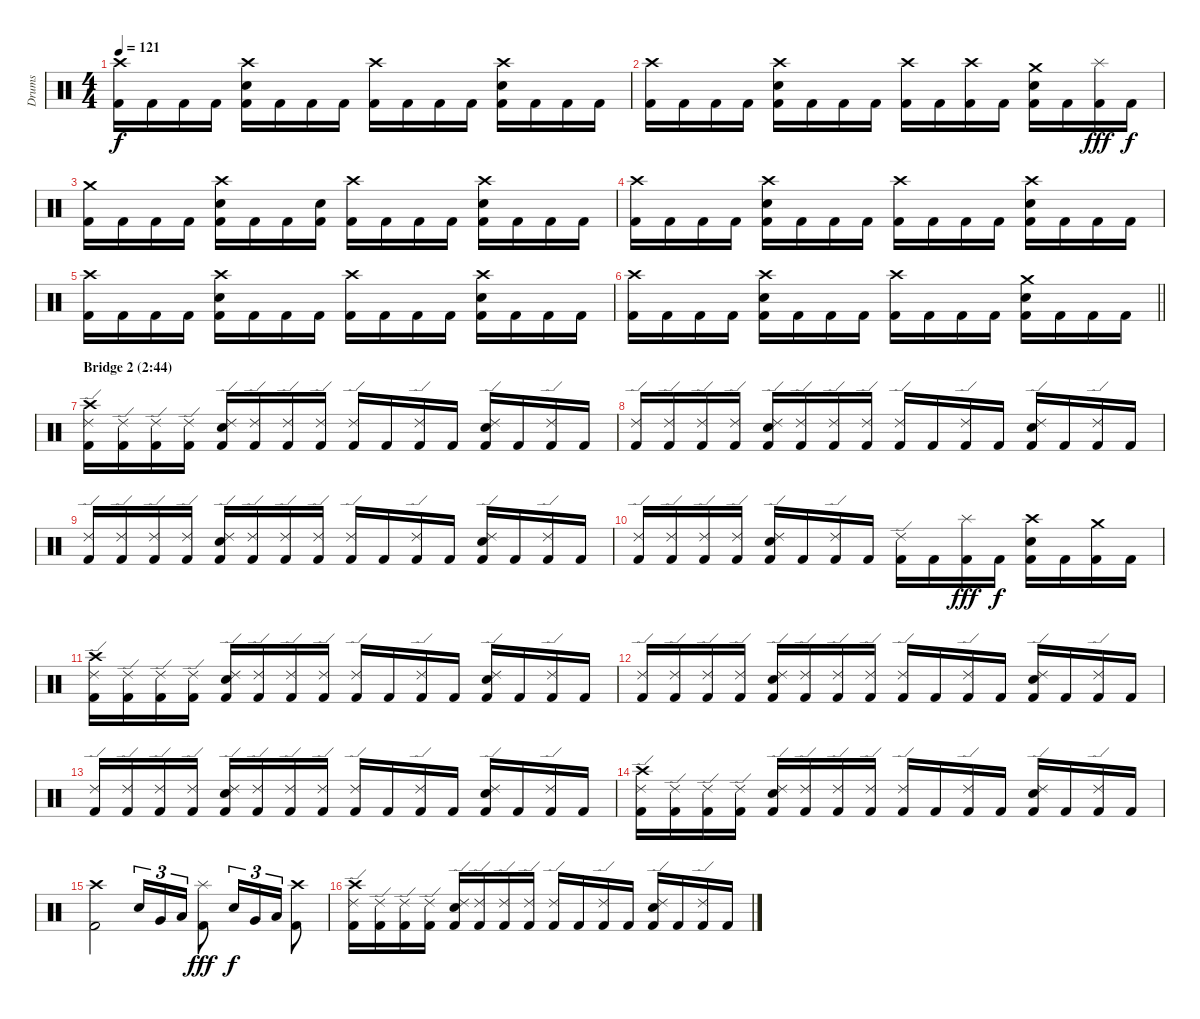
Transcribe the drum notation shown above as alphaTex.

\track ("Drums" "Drums") {instrument percussion}
\staff {score}
\articulation defaults
\ts (4 4)
\tempo 121
\clef neutral
\ks c
("Crash high (hit)" "Kick (hit) 2").16{dy f} "Kick (hit) 2".16 "Kick (hit) 2".16 "Kick (hit) 2".16 ("Crash high (hit)" "Electric Snare (hit)" "Kick (hit) 2").16 "Kick (hit) 2".16 "Kick (hit) 2".16 "Kick (hit) 2".16 ("Crash high (hit)" "Kick (hit) 2").16 "Kick (hit) 2".16 "Kick (hit) 2".16 "Kick (hit) 2".16 ("Crash high (hit)" "Electric Snare (hit)" "Kick (hit) 2").16 "Kick (hit) 2".16 "Kick (hit) 2".16 "Kick (hit) 2".16 |
("Crash high (hit)" "Kick (hit) 2").16 "Kick (hit) 2".16 "Kick (hit) 2".16 "Kick (hit) 2".16 ("Crash high (hit)" "Electric Snare (hit)" "Kick (hit) 2").16 "Kick (hit) 2".16 "Kick (hit) 2".16 "Kick (hit) 2".16 ("Crash high (hit)" "Kick (hit) 2").16 "Kick (hit) 2".16 ("Crash high (hit)" "Kick (hit) 2").16 "Kick (hit) 2".16 ("Crash medium (hit)" "Electric Snare (hit)" "Kick (hit) 2").16 "Kick (hit) 2".16 ("Splash (hit)" "Kick (hit) 2").16{dy fff} "Kick (hit) 2".16{dy f} |
("Crash medium (hit)" "Kick (hit) 2").16 "Kick (hit) 2".16 "Kick (hit) 2".16 "Kick (hit) 2".16 ("Crash high (hit)" "Electric Snare (hit)" "Kick (hit) 2").16 "Kick (hit) 2".16 "Kick (hit) 2".16 ("Electric Snare (hit)" "Kick (hit) 2").16 ("Crash high (hit)" "Kick (hit) 2").16 "Kick (hit) 2".16 "Kick (hit) 2".16 "Kick (hit) 2".16 ("Crash high (hit)" "Electric Snare (hit)" "Kick (hit) 2").16 "Kick (hit) 2".16 "Kick (hit) 2".16 "Kick (hit) 2".16 |
("Crash high (hit)" "Kick (hit) 2").16 "Kick (hit) 2".16 "Kick (hit) 2".16 "Kick (hit) 2".16 ("Crash high (hit)" "Electric Snare (hit)" "Kick (hit) 2").16 "Kick (hit) 2".16 "Kick (hit) 2".16 "Kick (hit) 2".16 ("Crash high (hit)" "Kick (hit) 2").16 "Kick (hit) 2".16 "Kick (hit) 2".16 "Kick (hit) 2".16 ("Crash high (hit)" "Electric Snare (hit)" "Kick (hit) 2").16 "Kick (hit) 2".16 "Kick (hit) 2".16 "Kick (hit) 2".16 |
("Crash high (hit)" "Kick (hit) 2").16 "Kick (hit) 2".16 "Kick (hit) 2".16 "Kick (hit) 2".16 ("Crash high (hit)" "Electric Snare (hit)" "Kick (hit) 2").16 "Kick (hit) 2".16 "Kick (hit) 2".16 "Kick (hit) 2".16 ("Crash high (hit)" "Kick (hit) 2").16 "Kick (hit) 2".16 "Kick (hit) 2".16 "Kick (hit) 2".16 ("Crash high (hit)" "Electric Snare (hit)" "Kick (hit) 2").16 "Kick (hit) 2".16 "Kick (hit) 2".16 "Kick (hit) 2".16 |
\barLineRight lightlight
("Crash high (hit)" "Kick (hit) 2").16 "Kick (hit) 2".16 "Kick (hit) 2".16 "Kick (hit) 2".16 ("Crash high (hit)" "Electric Snare (hit)" "Kick (hit) 2").16 "Kick (hit) 2".16 "Kick (hit) 2".16 "Kick (hit) 2".16 ("Crash high (hit)" "Kick (hit) 2").16 "Kick (hit) 2".16 "Kick (hit) 2".16 "Kick (hit) 2".16 ("Crash medium (hit)" "Electric Snare (hit)" "Kick (hit) 2").16 "Kick (hit) 2".16 "Kick (hit) 2".16 "Kick (hit) 2".16 |
\section ("" "Bridge 2 (2:44)")
("Crash high (hit)" "Ride (edge) 2" "Kick (hit) 2").16 ("Ride (edge) 2" "Kick (hit) 2").16 ("Ride (edge) 2" "Kick (hit) 2").16 ("Ride (edge) 2" "Kick (hit) 2").16 ("Ride (edge) 2" "Electric Snare (hit)" "Kick (hit) 2").16 ("Ride (edge) 2" "Kick (hit) 2").16 ("Ride (edge) 2" "Kick (hit) 2").16 ("Ride (edge) 2" "Kick (hit) 2").16 ("Ride (edge) 2" "Kick (hit) 2").16 "Kick (hit) 2".16 ("Ride (edge) 2" "Kick (hit) 2").16 "Kick (hit) 2".16 ("Ride (edge) 2" "Electric Snare (hit)" "Kick (hit) 2").16 "Kick (hit) 2".16 ("Ride (edge) 2" "Kick (hit) 2").16 "Kick (hit) 2".16 |
("Ride (edge) 2" "Kick (hit) 2").16 ("Ride (edge) 2" "Kick (hit) 2").16 ("Ride (edge) 2" "Kick (hit) 2").16 ("Ride (edge) 2" "Kick (hit) 2").16 ("Ride (edge) 2" "Electric Snare (hit)" "Kick (hit) 2").16 ("Ride (edge) 2" "Kick (hit) 2").16 ("Ride (edge) 2" "Kick (hit) 2").16 ("Ride (edge) 2" "Kick (hit) 2").16 ("Ride (edge) 2" "Kick (hit) 2").16 "Kick (hit) 2".16 ("Ride (edge) 2" "Kick (hit) 2").16 "Kick (hit) 2".16 ("Ride (edge) 2" "Electric Snare (hit)" "Kick (hit) 2").16 "Kick (hit) 2".16 ("Ride (edge) 2" "Kick (hit) 2").16 "Kick (hit) 2".16 |
("Ride (edge) 2" "Kick (hit) 2").16 ("Ride (edge) 2" "Kick (hit) 2").16 ("Ride (edge) 2" "Kick (hit) 2").16 ("Ride (edge) 2" "Kick (hit) 2").16 ("Ride (edge) 2" "Electric Snare (hit)" "Kick (hit) 2").16 ("Ride (edge) 2" "Kick (hit) 2").16 ("Ride (edge) 2" "Kick (hit) 2").16 ("Ride (edge) 2" "Kick (hit) 2").16 ("Ride (edge) 2" "Kick (hit) 2").16 "Kick (hit) 2".16 ("Ride (edge) 2" "Kick (hit) 2").16 "Kick (hit) 2".16 ("Ride (edge) 2" "Electric Snare (hit)" "Kick (hit) 2").16 "Kick (hit) 2".16 ("Ride (edge) 2" "Kick (hit) 2").16 "Kick (hit) 2".16 |
("Ride (edge) 2" "Kick (hit) 2").16 ("Ride (edge) 2" "Kick (hit) 2").16 ("Ride (edge) 2" "Kick (hit) 2").16 ("Ride (edge) 2" "Kick (hit) 2").16 ("Ride (edge) 2" "Electric Snare (hit)" "Kick (hit) 2").16 "Kick (hit) 2".16 ("Ride (edge) 2" "Kick (hit) 2").16 "Kick (hit) 2".16 ("Ride (edge) 2" "Kick (hit) 2").16 "Kick (hit) 2".16 ("Splash (hit)" "Kick (hit) 2").16{dy fff} "Kick (hit) 2".16{dy f} ("Crash high (hit)" "Electric Snare (hit)" "Kick (hit) 2").16 "Kick (hit) 2".16 ("Crash medium (hit)" "Kick (hit) 2").16 "Kick (hit) 2".16 |
("Crash high (hit)" "Ride (edge) 2" "Kick (hit) 2").16 ("Ride (edge) 2" "Kick (hit) 2").16 ("Ride (edge) 2" "Kick (hit) 2").16 ("Ride (edge) 2" "Kick (hit) 2").16 ("Ride (edge) 2" "Electric Snare (hit)" "Kick (hit) 2").16 ("Ride (edge) 2" "Kick (hit) 2").16 ("Ride (edge) 2" "Kick (hit) 2").16 ("Ride (edge) 2" "Kick (hit) 2").16 ("Ride (edge) 2" "Kick (hit) 2").16 "Kick (hit) 2".16 ("Ride (edge) 2" "Kick (hit) 2").16 "Kick (hit) 2".16 ("Ride (edge) 2" "Electric Snare (hit)" "Kick (hit) 2").16 "Kick (hit) 2".16 ("Ride (edge) 2" "Kick (hit) 2").16 "Kick (hit) 2".16 |
("Ride (edge) 2" "Kick (hit) 2").16 ("Ride (edge) 2" "Kick (hit) 2").16 ("Ride (edge) 2" "Kick (hit) 2").16 ("Ride (edge) 2" "Kick (hit) 2").16 ("Ride (edge) 2" "Electric Snare (hit)" "Kick (hit) 2").16 ("Ride (edge) 2" "Kick (hit) 2").16 ("Ride (edge) 2" "Kick (hit) 2").16 ("Ride (edge) 2" "Kick (hit) 2").16 ("Ride (edge) 2" "Kick (hit) 2").16 "Kick (hit) 2".16 ("Ride (edge) 2" "Kick (hit) 2").16 "Kick (hit) 2".16 ("Ride (edge) 2" "Electric Snare (hit)" "Kick (hit) 2").16 "Kick (hit) 2".16 ("Ride (edge) 2" "Kick (hit) 2").16 "Kick (hit) 2".16 |
("Ride (edge) 2" "Kick (hit) 2").16 ("Ride (edge) 2" "Kick (hit) 2").16 ("Ride (edge) 2" "Kick (hit) 2").16 ("Ride (edge) 2" "Kick (hit) 2").16 ("Ride (edge) 2" "Electric Snare (hit)" "Kick (hit) 2").16 ("Ride (edge) 2" "Kick (hit) 2").16 ("Ride (edge) 2" "Kick (hit) 2").16 ("Ride (edge) 2" "Kick (hit) 2").16 ("Ride (edge) 2" "Kick (hit) 2").16 "Kick (hit) 2".16 ("Ride (edge) 2" "Kick (hit) 2").16 "Kick (hit) 2".16 ("Ride (edge) 2" "Electric Snare (hit)" "Kick (hit) 2").16 "Kick (hit) 2".16 ("Ride (edge) 2" "Kick (hit) 2").16 "Kick (hit) 2".16 |
("Crash high (hit)" "Ride (edge) 2" "Kick (hit) 2").16 ("Ride (edge) 2" "Kick (hit) 2").16 ("Ride (edge) 2" "Kick (hit) 2").16 ("Ride (edge) 2" "Kick (hit) 2").16 ("Ride (edge) 2" "Electric Snare (hit)" "Kick (hit) 2").16 ("Ride (edge) 2" "Kick (hit) 2").16 ("Ride (edge) 2" "Kick (hit) 2").16 ("Ride (edge) 2" "Kick (hit) 2").16 ("Ride (edge) 2" "Kick (hit) 2").16 "Kick (hit) 2".16 ("Ride (edge) 2" "Kick (hit) 2").16 "Kick (hit) 2".16 ("Ride (edge) 2" "Electric Snare (hit)" "Kick (hit) 2").16 "Kick (hit) 2".16 ("Ride (edge) 2" "Kick (hit) 2").16 "Kick (hit) 2".16 |
("Crash high (hit)" "Kick (hit) 2").2 "Electric Snare (hit)".16{tu (3 2)} "Very Low Tom (hit)".16{tu (3 2)} "Low Floor Tom (hit)".16{tu (3 2)} ("Splash (hit)" "Kick (hit) 2").8{dy fff} "Electric Snare (hit)".16{tu (3 2) dy f} "Very Low Tom (hit)".16{tu (3 2)} "Low Floor Tom (hit)".16{tu (3 2)} ("Crash high (hit)" "Kick (hit) 2").8 |
("Crash high (hit)" "Ride (edge) 2" "Kick (hit) 2").16 ("Ride (edge) 2" "Kick (hit) 2").16 ("Ride (edge) 2" "Kick (hit) 2").16 ("Ride (edge) 2" "Kick (hit) 2").16 ("Ride (edge) 2" "Electric Snare (hit)" "Kick (hit) 2").16 ("Ride (edge) 2" "Kick (hit) 2").16 ("Ride (edge) 2" "Kick (hit) 2").16 ("Ride (edge) 2" "Kick (hit) 2").16 ("Ride (edge) 2" "Kick (hit) 2").16 "Kick (hit) 2".16 ("Ride (edge) 2" "Kick (hit) 2").16 "Kick (hit) 2".16 ("Ride (edge) 2" "Electric Snare (hit)" "Kick (hit) 2").16 "Kick (hit) 2".16 ("Ride (edge) 2" "Kick (hit) 2").16 "Kick (hit) 2".16
